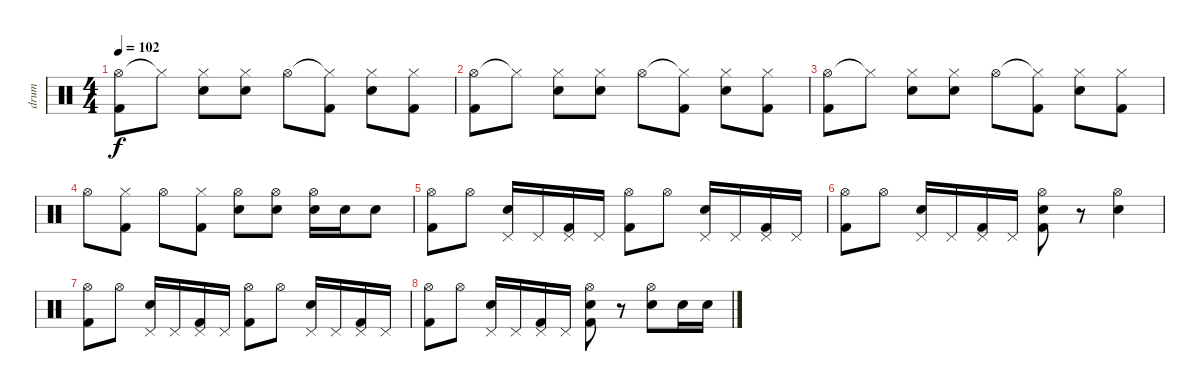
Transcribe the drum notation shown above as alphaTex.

\track ("drum" "drum") {instrument percussion}
\staff {score}
\articulation defaults
\ts (4 4)
\tempo 102
\clef neutral
\ks c
("Hi-Hat (open)" "Kick (hit) 2").8{dy f} "Hi-Hat (closed)"{t}.8 ("Hi-Hat (closed)" "Electric Snare (hit)").8 ("Hi-Hat (closed)" "Electric Snare (hit)").8 "Hi-Hat (open)".8 ("Hi-Hat (closed)"{t} "Kick (hit) 2").8 ("Hi-Hat (closed)" "Electric Snare (hit)").8 ("Hi-Hat (closed)" "Kick (hit) 2").8 |
("Hi-Hat (open)" "Kick (hit) 2").8 "Hi-Hat (closed)"{t}.8 ("Hi-Hat (closed)" "Electric Snare (hit)").8 ("Hi-Hat (closed)" "Electric Snare (hit)").8 "Hi-Hat (open)".8 ("Hi-Hat (closed)"{t} "Kick (hit) 2").8 ("Hi-Hat (closed)" "Electric Snare (hit)").8 ("Hi-Hat (closed)" "Kick (hit) 2").8 |
("Hi-Hat (open)" "Kick (hit) 2").8 "Hi-Hat (closed)"{t}.8 ("Hi-Hat (closed)" "Electric Snare (hit)").8 ("Hi-Hat (closed)" "Electric Snare (hit)").8 "Hi-Hat (open)".8 ("Hi-Hat (closed)"{t} "Kick (hit) 2").8 ("Hi-Hat (closed)" "Electric Snare (hit)").8 ("Hi-Hat (closed)" "Kick (hit) 2").8 |
"Hi-Hat (open)".8 ("Hi-Hat (closed)" "Kick (hit) 2").8 "Hi-Hat (open)".8 ("Hi-Hat (closed)" "Kick (hit) 2").8 ("Hi-Hat (open)" "Electric Snare (hit)").8 ("Hi-Hat (open)" "Electric Snare (hit)").8 ("Hi-Hat (open)" "Electric Snare (hit)").16 "Electric Snare (hit)".16 "Electric Snare (hit)".8 |
("Hi-Hat (open)" "Kick (hit) 2").8 "Hi-Hat (open)".8 ("Pedal Hi-Hat (hit)" "Electric Snare (hit)").16 "Pedal Hi-Hat (hit)".16 ("Pedal Hi-Hat (hit)" "Kick (hit) 2").16 "Pedal Hi-Hat (hit)".16 ("Hi-Hat (open)" "Kick (hit) 2").8 "Hi-Hat (open)".8 ("Pedal Hi-Hat (hit)" "Electric Snare (hit)").16 "Pedal Hi-Hat (hit)".16 ("Pedal Hi-Hat (hit)" "Kick (hit) 2").16 "Pedal Hi-Hat (hit)".16 |
("Hi-Hat (open)" "Kick (hit) 2").8 "Hi-Hat (open)".8 ("Pedal Hi-Hat (hit)" "Electric Snare (hit)").16 "Pedal Hi-Hat (hit)".16 ("Pedal Hi-Hat (hit)" "Kick (hit) 2").16 "Pedal Hi-Hat (hit)".16 ("Hi-Hat (open)" "Electric Snare (hit)" "Kick (hit) 2").8 r.8 ("Hi-Hat (open)" "Electric Snare (hit)").4 |
("Hi-Hat (open)" "Kick (hit) 2").8 "Hi-Hat (open)".8 ("Pedal Hi-Hat (hit)" "Electric Snare (hit)").16 "Pedal Hi-Hat (hit)".16 ("Pedal Hi-Hat (hit)" "Kick (hit) 2").16 "Pedal Hi-Hat (hit)".16 ("Hi-Hat (open)" "Kick (hit) 2").8 "Hi-Hat (open)".8 ("Pedal Hi-Hat (hit)" "Electric Snare (hit)").16 "Pedal Hi-Hat (hit)".16 ("Pedal Hi-Hat (hit)" "Kick (hit) 2").16 "Pedal Hi-Hat (hit)".16 |
("Hi-Hat (open)" "Kick (hit) 2").8 "Hi-Hat (open)".8 ("Pedal Hi-Hat (hit)" "Electric Snare (hit)").16 "Pedal Hi-Hat (hit)".16 ("Pedal Hi-Hat (hit)" "Kick (hit) 2").16 "Pedal Hi-Hat (hit)".16 ("Hi-Hat (open)" "Electric Snare (hit)" "Kick (hit) 2").8 r.8 ("Hi-Hat (open)" "Electric Snare (hit)").8 "Electric Snare (hit)".16 "Electric Snare (hit)".16
